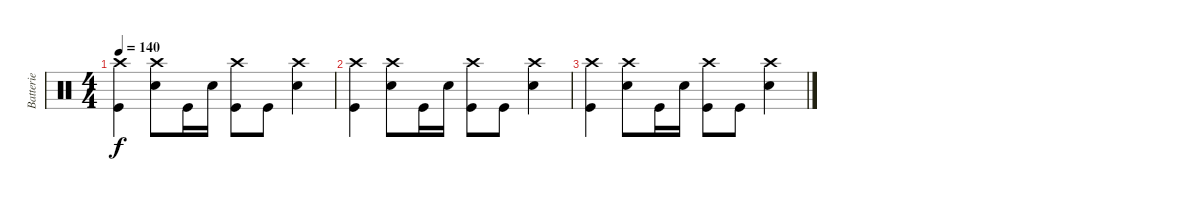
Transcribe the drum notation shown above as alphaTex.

\track ("Batterie" "Batterie") {instrument percussion}
\staff {score}
\articulation defaults
\ts (4 4)
\tempo 140
\clef neutral
\ks c
("Crash high (hit)" "Kick (hit)").4{dy f} ("Crash high (hit)" "Electric Snare (hit)").8 "Kick (hit)".16 "Electric Snare (hit)".16 ("Crash high (hit)" "Kick (hit)").8 "Kick (hit)".8 ("Crash high (hit)" "Electric Snare (hit)").4 |
("Crash high (hit)" "Kick (hit)").4 ("Crash high (hit)" "Electric Snare (hit)").8 "Kick (hit)".16 "Electric Snare (hit)".16 ("Crash high (hit)" "Kick (hit)").8 "Kick (hit)".8 ("Crash high (hit)" "Electric Snare (hit)").4 |
("Crash high (hit)" "Kick (hit)").4 ("Crash high (hit)" "Electric Snare (hit)").8 "Kick (hit)".16 "Electric Snare (hit)".16 ("Crash high (hit)" "Kick (hit)").8 "Kick (hit)".8 ("Crash high (hit)" "Electric Snare (hit)").4
